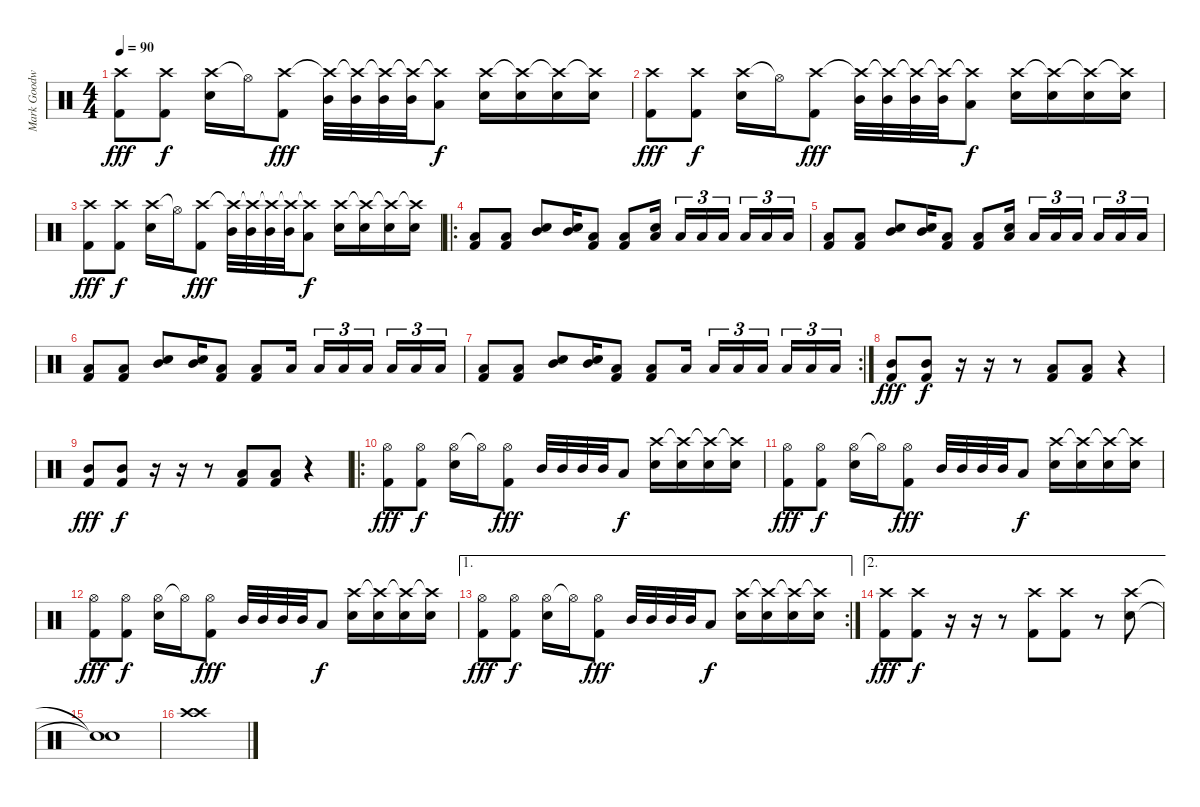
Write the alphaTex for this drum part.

\track ("Mark Goodwin" "Mark Goodw") {instrument percussion}
\staff {score}
\articulation defaults
\ts (4 4)
\tempo 90
\clef neutral
\ks c
("Crash high (hit)" "Kick (hit) 2").8{dy fff} ("Crash high (hit)" "Kick (hit) 2").8{dy f} ("Crash high (hit)" "Electric Snare (hit)").16 "Hi-Hat (open)"{t}.16 ("Crash high (hit)" "Kick (hit) 2").8{dy fff} ("Crash high (hit)"{t} "Mid Tom (hit)").32 ("Crash high (hit)"{t} "Mid Tom (hit)").32 ("Crash high (hit)"{t} "Mid Tom (hit)").32 ("Crash high (hit)"{t} "Mid Tom (hit)").32 ("Crash high (hit)"{t} "Low Floor Tom (hit)").8{dy f} ("Crash high (hit)" "Electric Snare (hit)").16 ("Crash high (hit)"{t} "Electric Snare (hit)").16 ("Crash high (hit)"{t} "Electric Snare (hit)").16 ("Crash high (hit)"{t} "Electric Snare (hit)").16 |
("Crash high (hit)" "Kick (hit) 2").8{dy fff} ("Crash high (hit)" "Kick (hit) 2").8{dy f} ("Crash high (hit)" "Electric Snare (hit)").16 "Hi-Hat (open)"{t}.16 ("Crash high (hit)" "Kick (hit) 2").8{dy fff} ("Crash high (hit)"{t} "Mid Tom (hit)").32 ("Crash high (hit)"{t} "Mid Tom (hit)").32 ("Crash high (hit)"{t} "Mid Tom (hit)").32 ("Crash high (hit)"{t} "Mid Tom (hit)").32 ("Crash high (hit)"{t} "Low Floor Tom (hit)").8{dy f} ("Crash high (hit)" "Electric Snare (hit)").16 ("Crash high (hit)"{t} "Electric Snare (hit)").16 ("Crash high (hit)"{t} "Electric Snare (hit)").16 ("Crash high (hit)"{t} "Electric Snare (hit)").16 |
("Crash high (hit)" "Kick (hit) 2").8{dy fff} ("Crash high (hit)" "Kick (hit) 2").8{dy f} ("Crash high (hit)" "Electric Snare (hit)").16 "Hi-Hat (open)"{t}.16 ("Crash high (hit)" "Kick (hit) 2").8{dy fff} ("Crash high (hit)"{t} "Mid Tom (hit)").32 ("Crash high (hit)"{t} "Mid Tom (hit)").32 ("Crash high (hit)"{t} "Mid Tom (hit)").32 ("Crash high (hit)"{t} "Mid Tom (hit)").32 ("Crash high (hit)"{t} "Low Floor Tom (hit)").8{dy f} ("Crash high (hit)" "Electric Snare (hit)").16 ("Crash high (hit)"{t} "Electric Snare (hit)").16 ("Crash high (hit)"{t} "Electric Snare (hit)").16 ("Crash high (hit)"{t} "Electric Snare (hit)").16 |
\ro
("Low Floor Tom (hit)" "Kick (hit) 2").8 ("Low Floor Tom (hit)" "Kick (hit) 2").8 ("Mid Tom (hit)" "Electric Snare (hit)").8 ("Mid Tom (hit)" "Electric Snare (hit)").16 ("Low Floor Tom (hit)" "Kick (hit) 2").8 ("Low Floor Tom (hit)" "Kick (hit) 2").8 ("Low Tom (hit)" "Snare (hit) 2").16 "Low Tom (hit)".16{tu (3 2)} "Low Tom (hit)".16{tu (3 2)} "Low Tom (hit)".16{tu (3 2) beam splitsecondary} "Low Tom (hit)".16{tu (3 2)} "Low Tom (hit)".16{tu (3 2)} "Low Tom (hit)".16{tu (3 2)} |
("Low Floor Tom (hit)" "Kick (hit) 2").8 ("Low Floor Tom (hit)" "Kick (hit) 2").8 ("Mid Tom (hit)" "Electric Snare (hit)").8 ("Mid Tom (hit)" "Electric Snare (hit)").16 ("Low Floor Tom (hit)" "Kick (hit) 2").8 ("Low Floor Tom (hit)" "Kick (hit) 2").8 ("Low Tom (hit)" "Electric Snare (hit)").16 "Low Tom (hit)".16{tu (3 2)} "Low Tom (hit)".16{tu (3 2)} "Low Tom (hit)".16{tu (3 2) beam splitsecondary} "Low Tom (hit)".16{tu (3 2)} "Low Tom (hit)".16{tu (3 2)} "Low Tom (hit)".16{tu (3 2)} |
("Low Floor Tom (hit)" "Kick (hit) 2").8 ("Low Floor Tom (hit)" "Kick (hit) 2").8 ("Mid Tom (hit)" "Electric Snare (hit)").8 ("Mid Tom (hit)" "Electric Snare (hit)").16 ("Low Floor Tom (hit)" "Kick (hit) 2").8 ("Low Floor Tom (hit)" "Kick (hit) 2").8 "Low Tom (hit)".16 "Low Tom (hit)".16{tu (3 2)} "Low Tom (hit)".16{tu (3 2)} "Low Tom (hit)".16{tu (3 2) beam splitsecondary} "Low Tom (hit)".16{tu (3 2)} "Low Tom (hit)".16{tu (3 2)} "Low Tom (hit)".16{tu (3 2)} |
\rc 2
("Low Floor Tom (hit)" "Kick (hit) 2").8 ("Low Floor Tom (hit)" "Kick (hit) 2").8 ("Mid Tom (hit)" "Electric Snare (hit)").8 ("Mid Tom (hit)" "Electric Snare (hit)").16 ("Low Floor Tom (hit)" "Kick (hit) 2").8 ("Low Floor Tom (hit)" "Kick (hit) 2").8 "Low Tom (hit)".16 "Low Tom (hit)".16{tu (3 2)} "Low Tom (hit)".16{tu (3 2)} "Low Tom (hit)".16{tu (3 2) beam splitsecondary} "Low Tom (hit)".16{tu (3 2)} "Low Tom (hit)".16{tu (3 2)} "Low Tom (hit)".16{tu (3 2)} |
("Mid Tom (hit)" "Kick (hit) 2").8{dy fff} ("Mid Tom (hit)" "Kick (hit) 2").8{dy f} r.16 r.16 r.8 ("Low Tom (hit)" "Kick (hit) 2").8 ("Low Tom (hit)" "Kick (hit) 2").8 r.4 |
("Mid Tom (hit)" "Kick (hit) 2").8{dy fff} ("Mid Tom (hit)" "Kick (hit) 2").8{dy f} r.16 r.16 r.8 ("Low Tom (hit)" "Kick (hit) 2").8 ("Low Tom (hit)" "Kick (hit) 2").8 r.4 |
\ro
("Hi-Hat (open)" "Kick (hit) 2").8{dy fff} ("Hi-Hat (open)" "Kick (hit) 2").8{dy f} ("Hi-Hat (open)" "Electric Snare (hit)").16 "Hi-Hat (open)"{t}.16 ("Hi-Hat (open)" "Kick (hit) 2").8{dy fff} "Mid Tom (hit)".32 "Mid Tom (hit)".32 "Mid Tom (hit)".32 "Mid Tom (hit)".32 "Low Floor Tom (hit)".8{dy f} ("Crash high (hit)" "Electric Snare (hit)").16 ("Crash high (hit)"{t} "Electric Snare (hit)").16 ("Crash high (hit)"{t} "Electric Snare (hit)").16 ("Crash high (hit)"{t} "Electric Snare (hit)").16 |
("Hi-Hat (open)" "Kick (hit) 2").8{dy fff} ("Hi-Hat (open)" "Kick (hit) 2").8{dy f} ("Hi-Hat (open)" "Electric Snare (hit)").16 "Hi-Hat (open)"{t}.16 ("Hi-Hat (open)" "Kick (hit) 2").8{dy fff} "Mid Tom (hit)".32 "Mid Tom (hit)".32 "Mid Tom (hit)".32 "Mid Tom (hit)".32 "Low Floor Tom (hit)".8{dy f} ("Crash high (hit)" "Electric Snare (hit)").16 ("Crash high (hit)"{t} "Electric Snare (hit)").16 ("Crash high (hit)"{t} "Electric Snare (hit)").16 ("Crash high (hit)"{t} "Electric Snare (hit)").16 |
("Hi-Hat (open)" "Kick (hit) 2").8{dy fff} ("Hi-Hat (open)" "Kick (hit) 2").8{dy f} ("Hi-Hat (open)" "Electric Snare (hit)").16 "Hi-Hat (open)"{t}.16 ("Hi-Hat (open)" "Kick (hit) 2").8{dy fff} "Mid Tom (hit)".32 "Mid Tom (hit)".32 "Mid Tom (hit)".32 "Mid Tom (hit)".32 "Low Floor Tom (hit)".8{dy f} ("Crash high (hit)" "Electric Snare (hit)").16 ("Crash high (hit)"{t} "Electric Snare (hit)").16 ("Crash high (hit)"{t} "Electric Snare (hit)").16 ("Crash high (hit)"{t} "Electric Snare (hit)").16 |
\ae 1
\rc 2
("Hi-Hat (open)" "Kick (hit) 2").8{dy fff} ("Hi-Hat (open)" "Kick (hit) 2").8{dy f} ("Hi-Hat (open)" "Electric Snare (hit)").16 "Hi-Hat (open)"{t}.16 ("Hi-Hat (open)" "Kick (hit) 2").8{dy fff} "Mid Tom (hit)".32 "Mid Tom (hit)".32 "Mid Tom (hit)".32 "Mid Tom (hit)".32 "Low Floor Tom (hit)".8{dy f} ("Crash high (hit)" "Electric Snare (hit)").16 ("Crash high (hit)"{t} "Electric Snare (hit)").16 ("Crash high (hit)"{t} "Electric Snare (hit)").16 ("Crash high (hit)"{t} "Electric Snare (hit)").16 |
\ae 2
("Crash high (hit)" "Kick (hit) 2").8{dy fff} ("Crash high (hit)" "Kick (hit) 2").8{dy f} r.16 r.16 r.8 ("Crash high (hit)" "Kick (hit) 2").8 ("Crash high (hit)" "Kick (hit) 2").8 r.8 ("Crash high (hit)" "Electric Snare (hit)").8 |
("Snare (hit)"{t} "Snare (hit)"{t}).1 |
("Crash high (hit)" "Crash high (hit)").1
